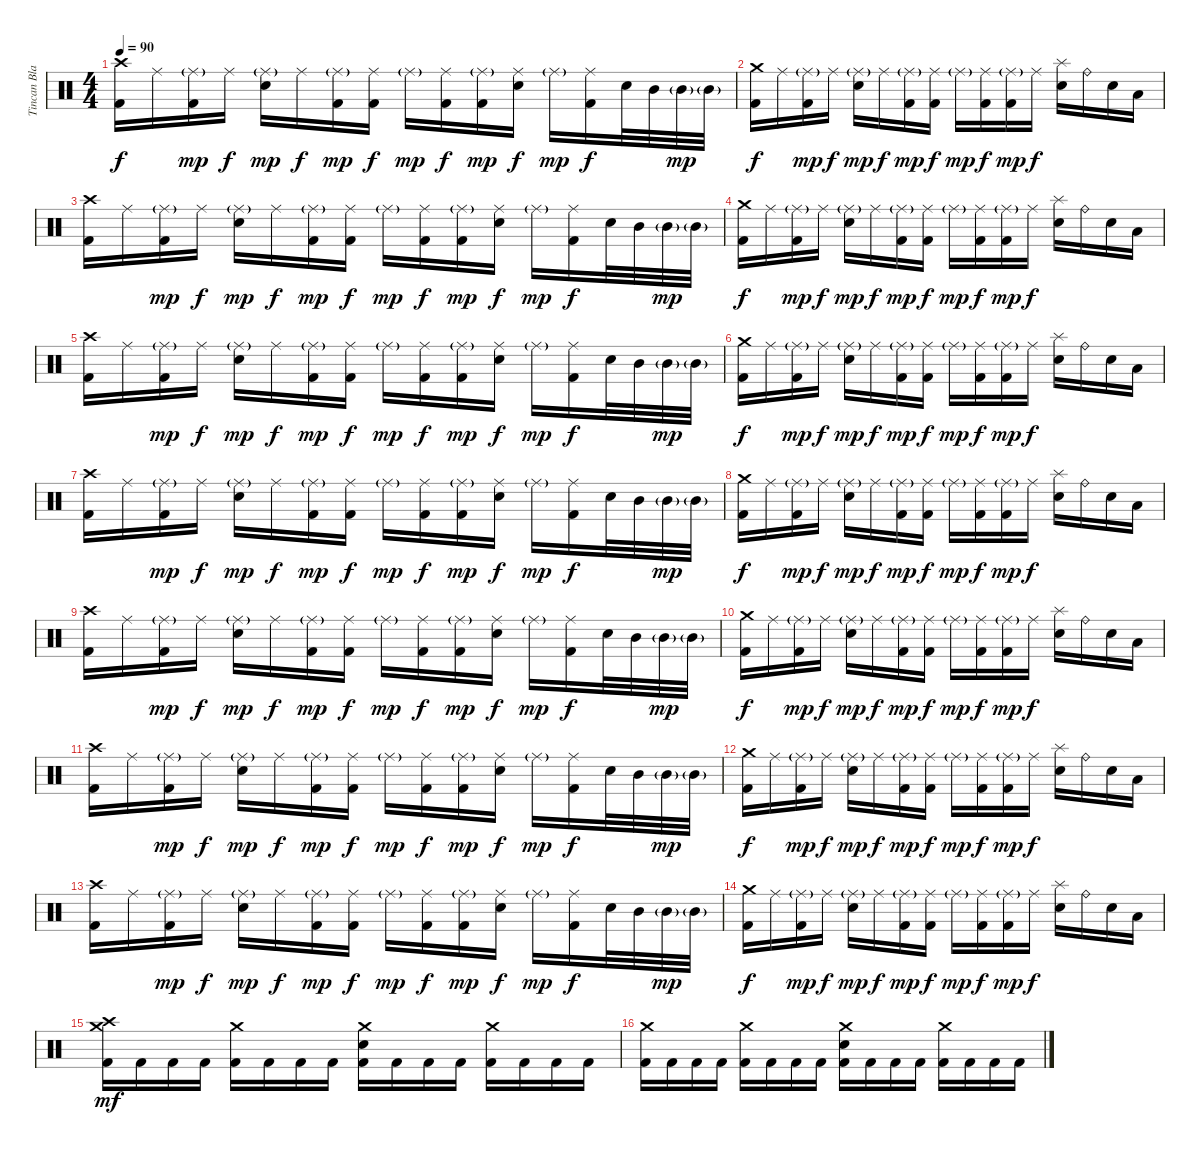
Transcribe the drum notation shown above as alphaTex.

\track ("Tincan Blaster" "Tincan Bla") {instrument percussion}
\staff {score}
\articulation defaults
\ts (4 4)
\tempo 90
\clef neutral
\ks c
("Crash high (hit)" "Kick (hit) 2").16{dy f} "Ride (middle)".16 ("Ride (middle)"{g} "Kick (hit) 2").16{dy mp} "Ride (middle)".16{dy f} ("Ride (middle)"{g} "Electric Snare (hit)").16{dy mp} "Ride (middle)".16{dy f} ("Ride (middle)"{g} "Kick (hit) 2").16{dy mp} ("Ride (middle)" "Kick (hit) 2").16{dy f} "Ride (middle)"{g}.16{dy mp} ("Ride (middle)" "Kick (hit) 2").16{dy f} ("Ride (middle)"{g} "Kick (hit) 2").16{dy mp} ("Ride (middle)" "Electric Snare (hit)").16{dy f} "Ride (middle)"{g}.16{dy mp} ("Ride (middle)" "Kick (hit) 2").16{dy f} "Electric Snare (hit)".32 "Mid Tom (hit)".32 "Mid Tom (hit)"{g}.32{dy mp} "Mid Tom (hit)"{g}.32 |
("Crash medium (hit)" "Kick (hit) 2").16{dy f} "Ride (middle)".16 ("Ride (middle)"{g} "Kick (hit) 2").16{dy mp} "Ride (middle)".16{dy f} ("Ride (middle)"{g} "Electric Snare (hit)").16{dy mp} "Ride (middle)".16{dy f} ("Ride (middle)"{g} "Kick (hit) 2").16{dy mp} ("Ride (middle)" "Kick (hit) 2").16{dy f} "Ride (middle)"{g}.16{dy mp} ("Ride (middle)" "Kick (hit) 2").16{dy f} ("Ride (middle)"{g} "Kick (hit) 2").16{dy mp} "Ride (middle)".16{dy f} ("Splash (hit)" "Electric Snare (hit)").16 "Ride (bell)".16 "Electric Snare (hit)".16 "Low Tom (hit)".16 |
("Crash high (hit)" "Kick (hit) 2").16 "Ride (middle)".16 ("Ride (middle)"{g} "Kick (hit) 2").16{dy mp} "Ride (middle)".16{dy f} ("Ride (middle)"{g} "Electric Snare (hit)").16{dy mp} "Ride (middle)".16{dy f} ("Ride (middle)"{g} "Kick (hit) 2").16{dy mp} ("Ride (middle)" "Kick (hit) 2").16{dy f} "Ride (middle)"{g}.16{dy mp} ("Ride (middle)" "Kick (hit) 2").16{dy f} ("Ride (middle)"{g} "Kick (hit) 2").16{dy mp} ("Ride (middle)" "Electric Snare (hit)").16{dy f} "Ride (middle)"{g}.16{dy mp} ("Ride (middle)" "Kick (hit) 2").16{dy f} "Electric Snare (hit)".32 "Mid Tom (hit)".32 "Mid Tom (hit)"{g}.32{dy mp} "Mid Tom (hit)"{g}.32 |
("Crash medium (hit)" "Kick (hit) 2").16{dy f} "Ride (middle)".16 ("Ride (middle)"{g} "Kick (hit) 2").16{dy mp} "Ride (middle)".16{dy f} ("Ride (middle)"{g} "Electric Snare (hit)").16{dy mp} "Ride (middle)".16{dy f} ("Ride (middle)"{g} "Kick (hit) 2").16{dy mp} ("Ride (middle)" "Kick (hit) 2").16{dy f} "Ride (middle)"{g}.16{dy mp} ("Ride (middle)" "Kick (hit) 2").16{dy f} ("Ride (middle)"{g} "Kick (hit) 2").16{dy mp} "Ride (middle)".16{dy f} ("Splash (hit)" "Electric Snare (hit)").16 "Ride (bell)".16 "Electric Snare (hit)".16 "Low Tom (hit)".16 |
("Crash high (hit)" "Kick (hit) 2").16 "Ride (middle)".16 ("Ride (middle)"{g} "Kick (hit) 2").16{dy mp} "Ride (middle)".16{dy f} ("Ride (middle)"{g} "Electric Snare (hit)").16{dy mp} "Ride (middle)".16{dy f} ("Ride (middle)"{g} "Kick (hit) 2").16{dy mp} ("Ride (middle)" "Kick (hit) 2").16{dy f} "Ride (middle)"{g}.16{dy mp} ("Ride (middle)" "Kick (hit) 2").16{dy f} ("Ride (middle)"{g} "Kick (hit) 2").16{dy mp} ("Ride (middle)" "Electric Snare (hit)").16{dy f} "Ride (middle)"{g}.16{dy mp} ("Ride (middle)" "Kick (hit) 2").16{dy f} "Electric Snare (hit)".32 "Mid Tom (hit)".32 "Mid Tom (hit)"{g}.32{dy mp} "Mid Tom (hit)"{g}.32 |
("Crash medium (hit)" "Kick (hit) 2").16{dy f} "Ride (middle)".16 ("Ride (middle)"{g} "Kick (hit) 2").16{dy mp} "Ride (middle)".16{dy f} ("Ride (middle)"{g} "Electric Snare (hit)").16{dy mp} "Ride (middle)".16{dy f} ("Ride (middle)"{g} "Kick (hit) 2").16{dy mp} ("Ride (middle)" "Kick (hit) 2").16{dy f} "Ride (middle)"{g}.16{dy mp} ("Ride (middle)" "Kick (hit) 2").16{dy f} ("Ride (middle)"{g} "Kick (hit) 2").16{dy mp} "Ride (middle)".16{dy f} ("Splash (hit)" "Electric Snare (hit)").16 "Ride (bell)".16 "Electric Snare (hit)".16 "Low Tom (hit)".16 |
("Crash high (hit)" "Kick (hit) 2").16 "Ride (middle)".16 ("Ride (middle)"{g} "Kick (hit) 2").16{dy mp} "Ride (middle)".16{dy f} ("Ride (middle)"{g} "Electric Snare (hit)").16{dy mp} "Ride (middle)".16{dy f} ("Ride (middle)"{g} "Kick (hit) 2").16{dy mp} ("Ride (middle)" "Kick (hit) 2").16{dy f} "Ride (middle)"{g}.16{dy mp} ("Ride (middle)" "Kick (hit) 2").16{dy f} ("Ride (middle)"{g} "Kick (hit) 2").16{dy mp} ("Ride (middle)" "Electric Snare (hit)").16{dy f} "Ride (middle)"{g}.16{dy mp} ("Ride (middle)" "Kick (hit) 2").16{dy f} "Electric Snare (hit)".32 "Mid Tom (hit)".32 "Mid Tom (hit)"{g}.32{dy mp} "Mid Tom (hit)"{g}.32 |
("Crash medium (hit)" "Kick (hit) 2").16{dy f} "Ride (middle)".16 ("Ride (middle)"{g} "Kick (hit) 2").16{dy mp} "Ride (middle)".16{dy f} ("Ride (middle)"{g} "Electric Snare (hit)").16{dy mp} "Ride (middle)".16{dy f} ("Ride (middle)"{g} "Kick (hit) 2").16{dy mp} ("Ride (middle)" "Kick (hit) 2").16{dy f} "Ride (middle)"{g}.16{dy mp} ("Ride (middle)" "Kick (hit) 2").16{dy f} ("Ride (middle)"{g} "Kick (hit) 2").16{dy mp} "Ride (middle)".16{dy f} ("Splash (hit)" "Electric Snare (hit)").16 "Ride (bell)".16 "Electric Snare (hit)".16 "Low Tom (hit)".16 |
("Crash high (hit)" "Kick (hit) 2").16 "Ride (middle)".16 ("Ride (middle)"{g} "Kick (hit) 2").16{dy mp} "Ride (middle)".16{dy f} ("Ride (middle)"{g} "Electric Snare (hit)").16{dy mp} "Ride (middle)".16{dy f} ("Ride (middle)"{g} "Kick (hit) 2").16{dy mp} ("Ride (middle)" "Kick (hit) 2").16{dy f} "Ride (middle)"{g}.16{dy mp} ("Ride (middle)" "Kick (hit) 2").16{dy f} ("Ride (middle)"{g} "Kick (hit) 2").16{dy mp} ("Ride (middle)" "Electric Snare (hit)").16{dy f} "Ride (middle)"{g}.16{dy mp} ("Ride (middle)" "Kick (hit) 2").16{dy f} "Electric Snare (hit)".32 "Mid Tom (hit)".32 "Mid Tom (hit)"{g}.32{dy mp} "Mid Tom (hit)"{g}.32 |
("Crash medium (hit)" "Kick (hit) 2").16{dy f} "Ride (middle)".16 ("Ride (middle)"{g} "Kick (hit) 2").16{dy mp} "Ride (middle)".16{dy f} ("Ride (middle)"{g} "Electric Snare (hit)").16{dy mp} "Ride (middle)".16{dy f} ("Ride (middle)"{g} "Kick (hit) 2").16{dy mp} ("Ride (middle)" "Kick (hit) 2").16{dy f} "Ride (middle)"{g}.16{dy mp} ("Ride (middle)" "Kick (hit) 2").16{dy f} ("Ride (middle)"{g} "Kick (hit) 2").16{dy mp} "Ride (middle)".16{dy f} ("Splash (hit)" "Electric Snare (hit)").16 "Ride (bell)".16 "Electric Snare (hit)".16 "Low Tom (hit)".16 |
("Crash high (hit)" "Kick (hit) 2").16 "Ride (middle)".16 ("Ride (middle)"{g} "Kick (hit) 2").16{dy mp} "Ride (middle)".16{dy f} ("Ride (middle)"{g} "Electric Snare (hit)").16{dy mp} "Ride (middle)".16{dy f} ("Ride (middle)"{g} "Kick (hit) 2").16{dy mp} ("Ride (middle)" "Kick (hit) 2").16{dy f} "Ride (middle)"{g}.16{dy mp} ("Ride (middle)" "Kick (hit) 2").16{dy f} ("Ride (middle)"{g} "Kick (hit) 2").16{dy mp} ("Ride (middle)" "Electric Snare (hit)").16{dy f} "Ride (middle)"{g}.16{dy mp} ("Ride (middle)" "Kick (hit) 2").16{dy f} "Electric Snare (hit)".32 "Mid Tom (hit)".32 "Mid Tom (hit)"{g}.32{dy mp} "Mid Tom (hit)"{g}.32 |
("Crash medium (hit)" "Kick (hit) 2").16{dy f} "Ride (middle)".16 ("Ride (middle)"{g} "Kick (hit) 2").16{dy mp} "Ride (middle)".16{dy f} ("Ride (middle)"{g} "Electric Snare (hit)").16{dy mp} "Ride (middle)".16{dy f} ("Ride (middle)"{g} "Kick (hit) 2").16{dy mp} ("Ride (middle)" "Kick (hit) 2").16{dy f} "Ride (middle)"{g}.16{dy mp} ("Ride (middle)" "Kick (hit) 2").16{dy f} ("Ride (middle)"{g} "Kick (hit) 2").16{dy mp} "Ride (middle)".16{dy f} ("Splash (hit)" "Electric Snare (hit)").16 "Ride (bell)".16 "Electric Snare (hit)".16 "Low Tom (hit)".16 |
("Crash high (hit)" "Kick (hit) 2").16 "Ride (middle)".16 ("Ride (middle)"{g} "Kick (hit) 2").16{dy mp} "Ride (middle)".16{dy f} ("Ride (middle)"{g} "Electric Snare (hit)").16{dy mp} "Ride (middle)".16{dy f} ("Ride (middle)"{g} "Kick (hit) 2").16{dy mp} ("Ride (middle)" "Kick (hit) 2").16{dy f} "Ride (middle)"{g}.16{dy mp} ("Ride (middle)" "Kick (hit) 2").16{dy f} ("Ride (middle)"{g} "Kick (hit) 2").16{dy mp} ("Ride (middle)" "Electric Snare (hit)").16{dy f} "Ride (middle)"{g}.16{dy mp} ("Ride (middle)" "Kick (hit) 2").16{dy f} "Electric Snare (hit)".32 "Mid Tom (hit)".32 "Mid Tom (hit)"{g}.32{dy mp} "Mid Tom (hit)"{g}.32 |
("Crash medium (hit)" "Kick (hit) 2").16{dy f} "Ride (middle)".16 ("Ride (middle)"{g} "Kick (hit) 2").16{dy mp} "Ride (middle)".16{dy f} ("Ride (middle)"{g} "Electric Snare (hit)").16{dy mp} "Ride (middle)".16{dy f} ("Ride (middle)"{g} "Kick (hit) 2").16{dy mp} ("Ride (middle)" "Kick (hit) 2").16{dy f} "Ride (middle)"{g}.16{dy mp} ("Ride (middle)" "Kick (hit) 2").16{dy f} ("Ride (middle)"{g} "Kick (hit) 2").16{dy mp} "Ride (middle)".16{dy f} ("Splash (hit)" "Electric Snare (hit)").16 "Ride (bell)".16 "Electric Snare (hit)".16 "Low Tom (hit)".16 |
("Crash medium (hit)" "Crash high (hit)" "Kick (hit) 2").16{dy mf} "Kick (hit) 2".16 "Kick (hit) 2".16 "Kick (hit) 2".16 ("Crash medium (hit)" "Kick (hit) 2").16 "Kick (hit) 2".16 "Kick (hit) 2".16 "Kick (hit) 2".16 ("Crash medium (hit)" "Electric Snare (hit)" "Kick (hit) 2").16 "Kick (hit) 2".16 "Kick (hit) 2".16 "Kick (hit) 2".16 ("Crash medium (hit)" "Kick (hit) 2").16 "Kick (hit) 2".16 "Kick (hit) 2".16 "Kick (hit) 2".16 |
("Crash medium (hit)" "Kick (hit) 2").16 "Kick (hit) 2".16 "Kick (hit) 2".16 "Kick (hit) 2".16 ("Crash medium (hit)" "Kick (hit) 2").16 "Kick (hit) 2".16 "Kick (hit) 2".16 "Kick (hit) 2".16 ("Crash medium (hit)" "Electric Snare (hit)" "Kick (hit) 2").16 "Kick (hit) 2".16 "Kick (hit) 2".16 "Kick (hit) 2".16 ("Crash medium (hit)" "Kick (hit) 2").16 "Kick (hit) 2".16 "Kick (hit) 2".16 "Kick (hit) 2".16
